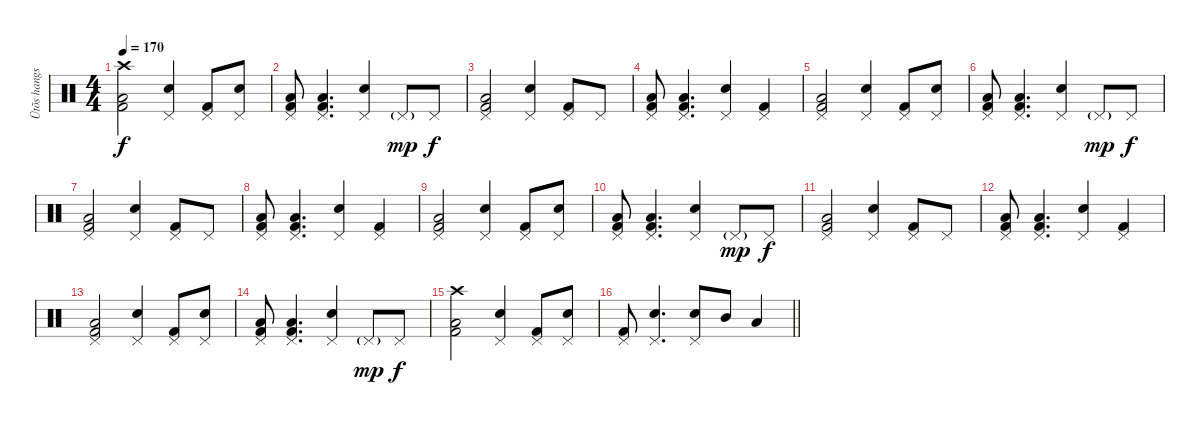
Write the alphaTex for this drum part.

\track ("Ütõs hangszer" "Ütõs hangs") {instrument percussion}
\staff {score}
\articulation defaults
\ts (4 4)
\section ("" "")
\tempo 170
\clef neutral
\ks c
("Crash high (hit)" "Kick (hit) 2" "Low Floor Tom (hit)").2{dy f} ("Pedal Hi-Hat (hit)" "Electric Snare (hit)").4 ("Pedal Hi-Hat (hit)" "Kick (hit) 2").8 ("Pedal Hi-Hat (hit)" "Electric Snare (hit)").8 |
("Pedal Hi-Hat (hit)" "Kick (hit) 2" "Low Floor Tom (hit)").8 ("Pedal Hi-Hat (hit)" "Kick (hit) 2" "Low Floor Tom (hit)").4{d} ("Pedal Hi-Hat (hit)" "Electric Snare (hit)").4 "Pedal Hi-Hat (hit)"{g}.8{dy mp} "Pedal Hi-Hat (hit)".8{dy f} |
("Pedal Hi-Hat (hit)" "Kick (hit) 2" "Low Floor Tom (hit)").2 ("Pedal Hi-Hat (hit)" "Electric Snare (hit)").4 ("Kick (hit) 2" "Pedal Hi-Hat (hit)").8 "Pedal Hi-Hat (hit)".8 |
("Pedal Hi-Hat (hit)" "Kick (hit) 2" "Low Floor Tom (hit)").8 ("Pedal Hi-Hat (hit)" "Kick (hit) 2" "Low Floor Tom (hit)").4{d} ("Pedal Hi-Hat (hit)" "Electric Snare (hit)").4 ("Kick (hit) 2" "Pedal Hi-Hat (hit)").4 |
("Pedal Hi-Hat (hit)" "Kick (hit) 2" "Low Floor Tom (hit)").2 ("Pedal Hi-Hat (hit)" "Electric Snare (hit)").4 ("Pedal Hi-Hat (hit)" "Kick (hit) 2").8 ("Pedal Hi-Hat (hit)" "Electric Snare (hit)").8 |
("Pedal Hi-Hat (hit)" "Kick (hit) 2" "Low Floor Tom (hit)").8 ("Pedal Hi-Hat (hit)" "Kick (hit) 2" "Low Floor Tom (hit)").4{d} ("Pedal Hi-Hat (hit)" "Electric Snare (hit)").4 "Pedal Hi-Hat (hit)"{g}.8{dy mp} "Pedal Hi-Hat (hit)".8{dy f} |
("Pedal Hi-Hat (hit)" "Kick (hit) 2" "Low Floor Tom (hit)").2 ("Pedal Hi-Hat (hit)" "Electric Snare (hit)").4 ("Kick (hit) 2" "Pedal Hi-Hat (hit)").8 "Pedal Hi-Hat (hit)".8 |
("Pedal Hi-Hat (hit)" "Kick (hit) 2" "Low Floor Tom (hit)").8 ("Pedal Hi-Hat (hit)" "Kick (hit) 2" "Low Floor Tom (hit)").4{d} ("Pedal Hi-Hat (hit)" "Electric Snare (hit)").4 ("Kick (hit) 2" "Pedal Hi-Hat (hit)").4 |
("Pedal Hi-Hat (hit)" "Kick (hit) 2" "Low Floor Tom (hit)").2 ("Pedal Hi-Hat (hit)" "Electric Snare (hit)").4 ("Pedal Hi-Hat (hit)" "Kick (hit) 2").8 ("Pedal Hi-Hat (hit)" "Electric Snare (hit)").8 |
("Pedal Hi-Hat (hit)" "Kick (hit) 2" "Low Floor Tom (hit)").8 ("Pedal Hi-Hat (hit)" "Kick (hit) 2" "Low Floor Tom (hit)").4{d} ("Pedal Hi-Hat (hit)" "Electric Snare (hit)").4 "Pedal Hi-Hat (hit)"{g}.8{dy mp} "Pedal Hi-Hat (hit)".8{dy f} |
("Pedal Hi-Hat (hit)" "Kick (hit) 2" "Low Floor Tom (hit)").2 ("Pedal Hi-Hat (hit)" "Electric Snare (hit)").4 ("Kick (hit) 2" "Pedal Hi-Hat (hit)").8 "Pedal Hi-Hat (hit)".8 |
("Pedal Hi-Hat (hit)" "Kick (hit) 2" "Low Floor Tom (hit)").8 ("Pedal Hi-Hat (hit)" "Kick (hit) 2" "Low Floor Tom (hit)").4{d} ("Pedal Hi-Hat (hit)" "Electric Snare (hit)").4 ("Kick (hit) 2" "Pedal Hi-Hat (hit)").4 |
("Pedal Hi-Hat (hit)" "Kick (hit) 2" "Low Floor Tom (hit)").2 ("Pedal Hi-Hat (hit)" "Electric Snare (hit)").4 ("Pedal Hi-Hat (hit)" "Kick (hit) 2").8 ("Pedal Hi-Hat (hit)" "Electric Snare (hit)").8 |
("Pedal Hi-Hat (hit)" "Kick (hit) 2" "Low Floor Tom (hit)").8 ("Pedal Hi-Hat (hit)" "Kick (hit) 2" "Low Floor Tom (hit)").4{d} ("Pedal Hi-Hat (hit)" "Electric Snare (hit)").4 "Pedal Hi-Hat (hit)"{g}.8{dy mp} "Pedal Hi-Hat (hit)".8{dy f} |
("Crash high (hit)" "Kick (hit) 2" "Low Floor Tom (hit)").2 ("Pedal Hi-Hat (hit)" "Electric Snare (hit)").4 ("Kick (hit) 2" "Pedal Hi-Hat (hit)").8 ("Electric Snare (hit)" "Pedal Hi-Hat (hit)").8 |
\barLineRight lightlight
("Kick (hit) 2" "Pedal Hi-Hat (hit)").8 ("Electric Snare (hit)" "Pedal Hi-Hat (hit)").4{d} ("Electric Snare (hit)" "Pedal Hi-Hat (hit)").8 "Mid Tom (hit)".8 "Low Tom (hit)".4
